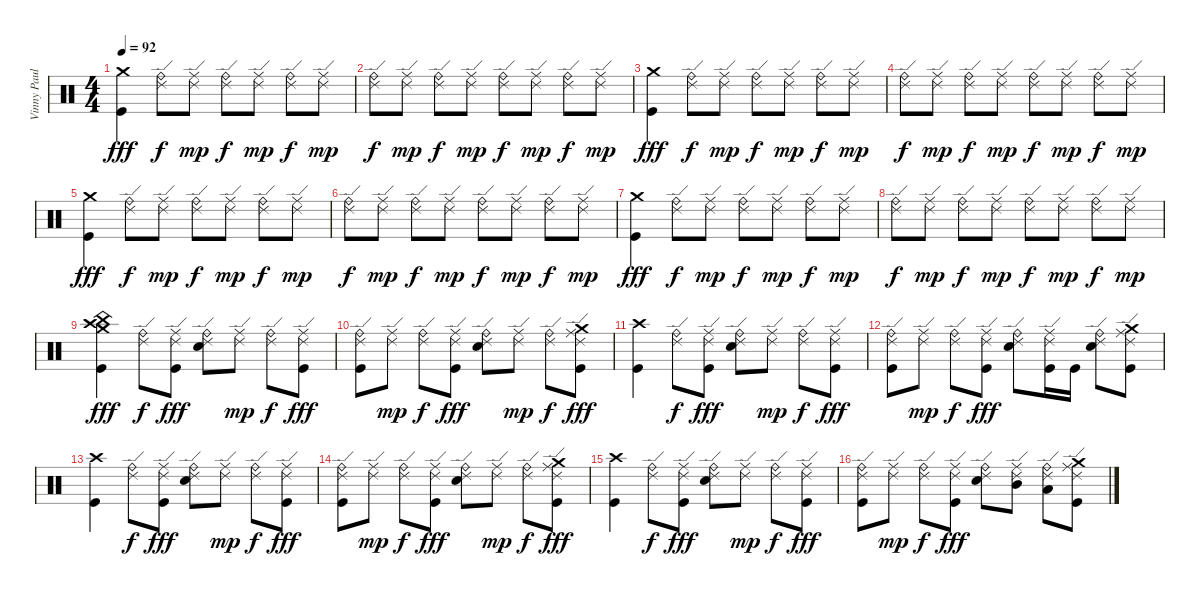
\track ("Vinny Paul" "Vinny Paul") {instrument percussion}
\staff {score}
\articulation defaults
\ts (4 4)
\section ("" "")
\tempo 92
\clef neutral
\ks c
("Crash medium (hit)" "Kick (hit)").4{dy fff} ("Ride (edge) 2" "Ride (bell)").8{dy f} ("Ride (edge) 2" "Ride (middle)").8{dy mp} ("Ride (edge) 2" "Ride (bell)").8{dy f} ("Ride (edge) 2" "Ride (middle)").8{dy mp} ("Ride (edge) 2" "Ride (bell)").8{dy f} ("Ride (edge) 2" "Ride (middle)").8{dy mp} |
("Ride (edge) 2" "Ride (bell)").8{dy f} ("Ride (edge) 2" "Ride (middle)").8{dy mp} ("Ride (edge) 2" "Ride (bell)").8{dy f} ("Ride (edge) 2" "Ride (middle)").8{dy mp} ("Ride (edge) 2" "Ride (bell)").8{dy f} ("Ride (edge) 2" "Ride (middle)").8{dy mp} ("Ride (edge) 2" "Ride (bell)").8{dy f} ("Ride (edge) 2" "Ride (middle)").8{dy mp} |
("Crash medium (hit)" "Kick (hit)").4{dy fff} ("Ride (edge) 2" "Ride (bell)").8{dy f} ("Ride (edge) 2" "Ride (middle)").8{dy mp} ("Ride (edge) 2" "Ride (bell)").8{dy f} ("Ride (edge) 2" "Ride (middle)").8{dy mp} ("Ride (edge) 2" "Ride (bell)").8{dy f} ("Ride (edge) 2" "Ride (middle)").8{dy mp} |
("Ride (edge) 2" "Ride (bell)").8{dy f} ("Ride (edge) 2" "Ride (middle)").8{dy mp} ("Ride (edge) 2" "Ride (bell)").8{dy f} ("Ride (edge) 2" "Ride (middle)").8{dy mp} ("Ride (edge) 2" "Ride (bell)").8{dy f} ("Ride (edge) 2" "Ride (middle)").8{dy mp} ("Ride (edge) 2" "Ride (bell)").8{dy f} ("Ride (edge) 2" "Ride (middle)").8{dy mp} |
("Crash medium (hit)" "Kick (hit)").4{dy fff} ("Ride (edge) 2" "Ride (bell)").8{dy f} ("Ride (edge) 2" "Ride (middle)").8{dy mp} ("Ride (edge) 2" "Ride (bell)").8{dy f} ("Ride (edge) 2" "Ride (middle)").8{dy mp} ("Ride (edge) 2" "Ride (bell)").8{dy f} ("Ride (edge) 2" "Ride (middle)").8{dy mp} |
("Ride (edge) 2" "Ride (bell)").8{dy f} ("Ride (edge) 2" "Ride (middle)").8{dy mp} ("Ride (edge) 2" "Ride (bell)").8{dy f} ("Ride (edge) 2" "Ride (middle)").8{dy mp} ("Ride (edge) 2" "Ride (bell)").8{dy f} ("Ride (edge) 2" "Ride (middle)").8{dy mp} ("Ride (edge) 2" "Ride (bell)").8{dy f} ("Ride (edge) 2" "Ride (middle)").8{dy mp} |
("Crash medium (hit)" "Kick (hit)").4{dy fff} ("Ride (edge) 2" "Ride (bell)").8{dy f} ("Ride (edge) 2" "Ride (middle)").8{dy mp} ("Ride (edge) 2" "Ride (bell)").8{dy f} ("Ride (edge) 2" "Ride (middle)").8{dy mp} ("Ride (edge) 2" "Ride (bell)").8{dy f} ("Ride (edge) 2" "Ride (middle)").8{dy mp} |
("Ride (edge) 2" "Ride (bell)").8{dy f} ("Ride (edge) 2" "Ride (middle)").8{dy mp} ("Ride (edge) 2" "Ride (bell)").8{dy f} ("Ride (edge) 2" "Ride (middle)").8{dy mp} ("Ride (edge) 2" "Ride (bell)").8{dy f} ("Ride (edge) 2" "Ride (middle)").8{dy mp} ("Ride (edge) 2" "Ride (bell)").8{dy f} ("Ride (edge) 2" "Ride (middle)").8{dy mp} |
("Crash high (hit)" "Crash medium (hit)" "China (hit)" "Kick (hit)").4{dy fff} ("Ride (edge) 2" "Ride (bell)").8{dy f} ("Ride (edge) 2" "Ride (middle)" "Kick (hit)").8{dy fff} ("Ride (edge) 2" "Ride (bell)" "Electric Snare (hit)").8 ("Ride (edge) 2" "Ride (middle)").8{dy mp} ("Ride (edge) 2" "Ride (bell)").8{dy f} ("Ride (edge) 2" "Ride (middle)" "Kick (hit)").8{dy fff} |
("Ride (edge) 2" "Ride (bell)" "Kick (hit)").8 ("Ride (edge) 2" "Ride (middle)").8{dy mp} ("Ride (edge) 2" "Ride (bell)").8{dy f} ("Ride (edge) 2" "Ride (middle)" "Kick (hit)").8{dy fff} ("Ride (edge) 2" "Ride (bell)" "Electric Snare (hit)").8 ("Ride (edge) 2" "Ride (middle)").8{dy mp} ("Ride (edge) 2" "Ride (bell)").8{dy f} ("Crash medium (hit)" "Ride (edge) 2" "Ride (middle)" "Kick (hit)").8{dy fff} |
("Crash high (hit)" "Kick (hit)").4 ("Ride (edge) 2" "Ride (bell)").8{dy f} ("Ride (edge) 2" "Ride (middle)" "Kick (hit)").8{dy fff} ("Ride (edge) 2" "Ride (bell)" "Electric Snare (hit)").8 ("Ride (edge) 2" "Ride (middle)").8{dy mp} ("Ride (edge) 2" "Ride (bell)").8{dy f} ("Ride (edge) 2" "Ride (middle)" "Kick (hit)").8{dy fff} |
("Ride (edge) 2" "Ride (bell)" "Kick (hit)").8 ("Ride (edge) 2" "Ride (middle)").8{dy mp} ("Ride (edge) 2" "Ride (bell)").8{dy f} ("Ride (edge) 2" "Ride (middle)" "Kick (hit)").8{dy fff} ("Ride (edge) 2" "Ride (bell)" "Electric Snare (hit)").8 ("Ride (edge) 2" "Ride (middle)" "Kick (hit)").16 "Kick (hit)".16 ("Ride (edge) 2" "Ride (bell)" "Electric Snare (hit)").8 ("Crash medium (hit)" "Ride (edge) 2" "Ride (middle)" "Kick (hit)").8 |
("Crash high (hit)" "Kick (hit)").4 ("Ride (edge) 2" "Ride (bell)").8{dy f} ("Ride (edge) 2" "Ride (middle)" "Kick (hit)").8{dy fff} ("Ride (edge) 2" "Ride (bell)" "Electric Snare (hit)").8 ("Ride (edge) 2" "Ride (middle)").8{dy mp} ("Ride (edge) 2" "Ride (bell)").8{dy f} ("Ride (edge) 2" "Ride (middle)" "Kick (hit)").8{dy fff} |
("Ride (edge) 2" "Ride (bell)" "Kick (hit)").8 ("Ride (edge) 2" "Ride (middle)").8{dy mp} ("Ride (edge) 2" "Ride (bell)").8{dy f} ("Ride (edge) 2" "Ride (middle)" "Kick (hit)").8{dy fff} ("Ride (edge) 2" "Ride (bell)" "Electric Snare (hit)").8 ("Ride (edge) 2" "Ride (middle)").8{dy mp} ("Ride (edge) 2" "Ride (bell)").8{dy f} ("Crash medium (hit)" "Ride (edge) 2" "Ride (middle)" "Kick (hit)").8{dy fff} |
("Crash high (hit)" "Kick (hit)").4 ("Ride (edge) 2" "Ride (bell)").8{dy f} ("Ride (edge) 2" "Ride (middle)" "Kick (hit)").8{dy fff} ("Ride (edge) 2" "Ride (bell)" "Electric Snare (hit)").8 ("Ride (edge) 2" "Ride (middle)").8{dy mp} ("Ride (edge) 2" "Ride (bell)").8{dy f} ("Ride (edge) 2" "Ride (middle)" "Kick (hit)").8{dy fff} |
("Ride (edge) 2" "Ride (bell)" "Kick (hit)").8 ("Ride (edge) 2" "Ride (middle)").8{dy mp} ("Ride (edge) 2" "Ride (bell)").8{dy f} ("Ride (edge) 2" "Ride (middle)" "Kick (hit)").8{dy fff} ("Ride (edge) 2" "Ride (bell)" "Electric Snare (hit)").8 ("Ride (edge) 2" "Ride (middle)" "Mid Tom (hit)").8 ("Ride (edge) 2" "Ride (bell)" "Low Floor Tom (hit)").8 ("Crash medium (hit)" "Ride (edge) 2" "Ride (middle)" "Kick (hit)").8
